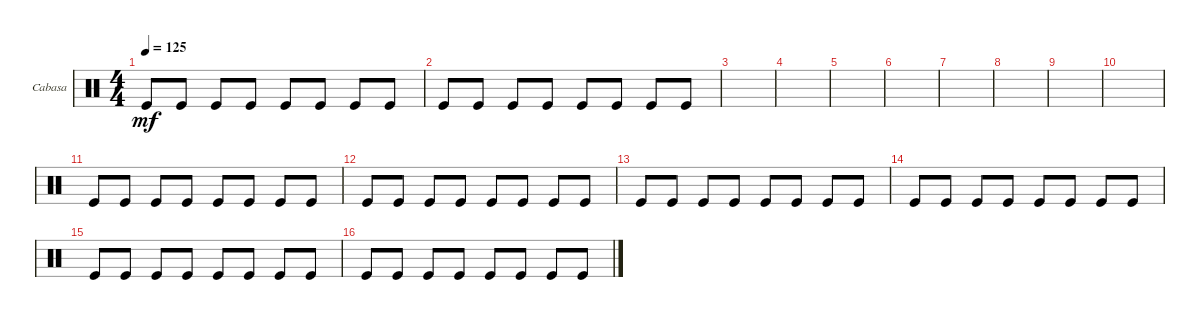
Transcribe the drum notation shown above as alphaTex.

\defaultSystemsLayout 4
\bracketExtendMode groupsimilarinstruments
\firstSystemTrackNameOrientation horizontal
\otherSystemsTrackNameOrientation horizontal
\track ("Cabasa" "Cabasa") {instrument percussion}
\staff {score}
\articulation defaults
\ts (4 4)
\tempo 125
\clef neutral
\ks c "Kick (hit)".8{dy mf} "Kick (hit)".8 "Kick (hit)".8 "Kick (hit)".8 "Kick (hit)".8 "Kick (hit)".8 "Kick (hit)".8 "Kick (hit)".8
|
"Kick (hit)".8 "Kick (hit)".8 "Kick (hit)".8 "Kick (hit)".8 "Kick (hit)".8 "Kick (hit)".8 "Kick (hit)".8 "Kick (hit)".8 |
|
|
|
|
|
|
|
|
"Kick (hit)".8 "Kick (hit)".8 "Kick (hit)".8 "Kick (hit)".8 "Kick (hit)".8 "Kick (hit)".8 "Kick (hit)".8 "Kick (hit)".8 |
"Kick (hit)".8 "Kick (hit)".8 "Kick (hit)".8 "Kick (hit)".8 "Kick (hit)".8 "Kick (hit)".8 "Kick (hit)".8 "Kick (hit)".8 |
"Kick (hit)".8 "Kick (hit)".8 "Kick (hit)".8 "Kick (hit)".8 "Kick (hit)".8 "Kick (hit)".8 "Kick (hit)".8 "Kick (hit)".8 |
"Kick (hit)".8 "Kick (hit)".8 "Kick (hit)".8 "Kick (hit)".8 "Kick (hit)".8 "Kick (hit)".8 "Kick (hit)".8 "Kick (hit)".8 |
"Kick (hit)".8 "Kick (hit)".8 "Kick (hit)".8 "Kick (hit)".8 "Kick (hit)".8 "Kick (hit)".8 "Kick (hit)".8 "Kick (hit)".8 |
"Kick (hit)".8 "Kick (hit)".8 "Kick (hit)".8 "Kick (hit)".8 "Kick (hit)".8 "Kick (hit)".8 "Kick (hit)".8 "Kick (hit)".8
